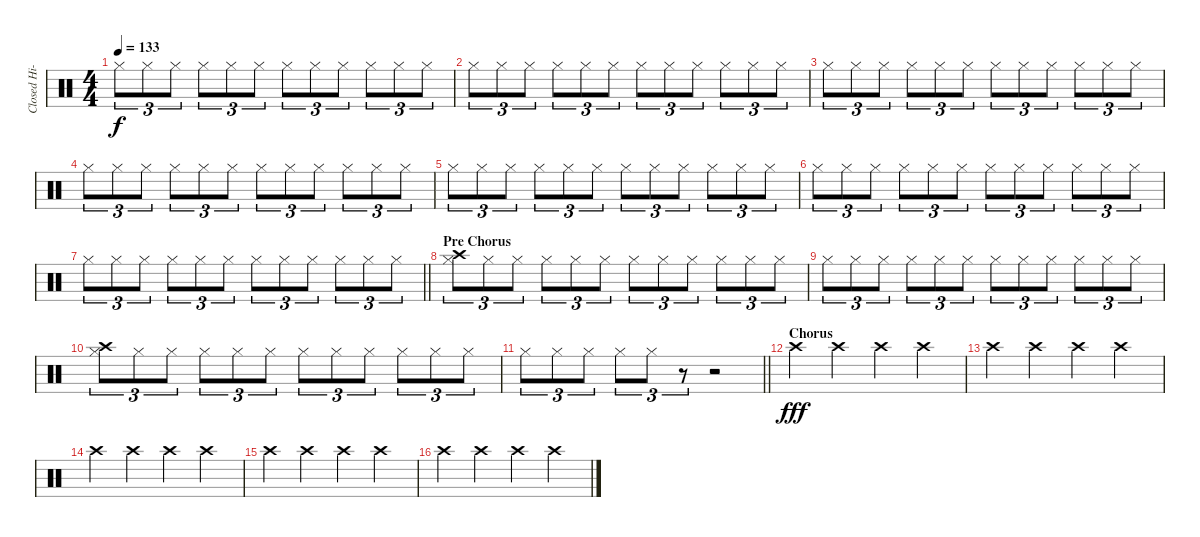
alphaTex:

\track ("Closed Hi-hat/Synth" "Closed Hi-") {instrument percussion}
\staff {score}
\articulation defaults
\ts (4 4)
\tempo 133
\clef neutral
\ks c "Hi-Hat (closed)".8{tu (3 2) dy f} "Hi-Hat (closed)".8{tu (3 2)} "Hi-Hat (closed)".8{tu (3 2)} "Hi-Hat (closed)".8{tu (3 2)} "Hi-Hat (closed)".8{tu (3 2)} "Hi-Hat (closed)".8{tu (3 2)} "Hi-Hat (closed)".8{tu (3 2)} "Hi-Hat (closed)".8{tu (3 2)} "Hi-Hat (closed)".8{tu (3 2)} "Hi-Hat (closed)".8{tu (3 2)} "Hi-Hat (closed)".8{tu (3 2)} "Hi-Hat (closed)".8{tu (3 2)}
|
"Hi-Hat (closed)".8{tu (3 2)} "Hi-Hat (closed)".8{tu (3 2)} "Hi-Hat (closed)".8{tu (3 2)} "Hi-Hat (closed)".8{tu (3 2)} "Hi-Hat (closed)".8{tu (3 2)} "Hi-Hat (closed)".8{tu (3 2)} "Hi-Hat (closed)".8{tu (3 2)} "Hi-Hat (closed)".8{tu (3 2)} "Hi-Hat (closed)".8{tu (3 2)} "Hi-Hat (closed)".8{tu (3 2)} "Hi-Hat (closed)".8{tu (3 2)} "Hi-Hat (closed)".8{tu (3 2)} |
"Hi-Hat (closed)".8{tu (3 2)} "Hi-Hat (closed)".8{tu (3 2)} "Hi-Hat (closed)".8{tu (3 2)} "Hi-Hat (closed)".8{tu (3 2)} "Hi-Hat (closed)".8{tu (3 2)} "Hi-Hat (closed)".8{tu (3 2)} "Hi-Hat (closed)".8{tu (3 2)} "Hi-Hat (closed)".8{tu (3 2)} "Hi-Hat (closed)".8{tu (3 2)} "Hi-Hat (closed)".8{tu (3 2)} "Hi-Hat (closed)".8{tu (3 2)} "Hi-Hat (closed)".8{tu (3 2)} |
"Hi-Hat (closed)".8{tu (3 2)} "Hi-Hat (closed)".8{tu (3 2)} "Hi-Hat (closed)".8{tu (3 2)} "Hi-Hat (closed)".8{tu (3 2)} "Hi-Hat (closed)".8{tu (3 2)} "Hi-Hat (closed)".8{tu (3 2)} "Hi-Hat (closed)".8{tu (3 2)} "Hi-Hat (closed)".8{tu (3 2)} "Hi-Hat (closed)".8{tu (3 2)} "Hi-Hat (closed)".8{tu (3 2)} "Hi-Hat (closed)".8{tu (3 2)} "Hi-Hat (closed)".8{tu (3 2)} |
"Hi-Hat (closed)".8{tu (3 2)} "Hi-Hat (closed)".8{tu (3 2)} "Hi-Hat (closed)".8{tu (3 2)} "Hi-Hat (closed)".8{tu (3 2)} "Hi-Hat (closed)".8{tu (3 2)} "Hi-Hat (closed)".8{tu (3 2)} "Hi-Hat (closed)".8{tu (3 2)} "Hi-Hat (closed)".8{tu (3 2)} "Hi-Hat (closed)".8{tu (3 2)} "Hi-Hat (closed)".8{tu (3 2)} "Hi-Hat (closed)".8{tu (3 2)} "Hi-Hat (closed)".8{tu (3 2)} |
"Hi-Hat (closed)".8{tu (3 2)} "Hi-Hat (closed)".8{tu (3 2)} "Hi-Hat (closed)".8{tu (3 2)} "Hi-Hat (closed)".8{tu (3 2)} "Hi-Hat (closed)".8{tu (3 2)} "Hi-Hat (closed)".8{tu (3 2)} "Hi-Hat (closed)".8{tu (3 2)} "Hi-Hat (closed)".8{tu (3 2)} "Hi-Hat (closed)".8{tu (3 2)} "Hi-Hat (closed)".8{tu (3 2)} "Hi-Hat (closed)".8{tu (3 2)} "Hi-Hat (closed)".8{tu (3 2)} |
\barLineRight lightlight "Hi-Hat (closed)".8{tu (3 2)} "Hi-Hat (closed)".8{tu (3 2)} "Hi-Hat (closed)".8{tu (3 2)} "Hi-Hat (closed)".8{tu (3 2)} "Hi-Hat (closed)".8{tu (3 2)} "Hi-Hat (closed)".8{tu (3 2)} "Hi-Hat (closed)".8{tu (3 2)} "Hi-Hat (closed)".8{tu (3 2)} "Hi-Hat (closed)".8{tu (3 2)} "Hi-Hat (closed)".8{tu (3 2)} "Hi-Hat (closed)".8{tu (3 2)} "Hi-Hat (closed)".8{tu (3 2)}
|
\section ("" "Pre Chorus")
("Crash high (hit)" "Hi-Hat (closed)").8{tu (3 2)} "Hi-Hat (closed)".8{tu (3 2)} "Hi-Hat (closed)".8{tu (3 2)} "Hi-Hat (closed)".8{tu (3 2)} "Hi-Hat (closed)".8{tu (3 2)} "Hi-Hat (closed)".8{tu (3 2)} "Hi-Hat (closed)".8{tu (3 2)} "Hi-Hat (closed)".8{tu (3 2)} "Hi-Hat (closed)".8{tu (3 2)} "Hi-Hat (closed)".8{tu (3 2)} "Hi-Hat (closed)".8{tu (3 2)} "Hi-Hat (closed)".8{tu (3 2)} |
"Hi-Hat (closed)".8{tu (3 2)} "Hi-Hat (closed)".8{tu (3 2)} "Hi-Hat (closed)".8{tu (3 2)} "Hi-Hat (closed)".8{tu (3 2)} "Hi-Hat (closed)".8{tu (3 2)} "Hi-Hat (closed)".8{tu (3 2)} "Hi-Hat (closed)".8{tu (3 2)} "Hi-Hat (closed)".8{tu (3 2)} "Hi-Hat (closed)".8{tu (3 2)} "Hi-Hat (closed)".8{tu (3 2)} "Hi-Hat (closed)".8{tu (3 2)} "Hi-Hat (closed)".8{tu (3 2)} |
("Crash high (hit)" "Hi-Hat (closed)").8{tu (3 2)} "Hi-Hat (closed)".8{tu (3 2)} "Hi-Hat (closed)".8{tu (3 2)} "Hi-Hat (closed)".8{tu (3 2)} "Hi-Hat (closed)".8{tu (3 2)} "Hi-Hat (closed)".8{tu (3 2)} "Hi-Hat (closed)".8{tu (3 2)} "Hi-Hat (closed)".8{tu (3 2)} "Hi-Hat (closed)".8{tu (3 2)} "Hi-Hat (closed)".8{tu (3 2)} "Hi-Hat (closed)".8{tu (3 2)} "Hi-Hat (closed)".8{tu (3 2)} |
\barLineRight lightlight "Hi-Hat (closed)".8{tu (3 2)} "Hi-Hat (closed)".8{tu (3 2)} "Hi-Hat (closed)".8{tu (3 2)} "Hi-Hat (closed)".8{tu (3 2)} "Hi-Hat (closed)".8{tu (3 2)}
r.8{tu (3 2)} r.2 |
\section ("" "Chorus")
"Crash high (hit)".4{dy fff} "Crash high (hit)".4 "Crash high (hit)".4 "Crash high (hit)".4 |
"Crash high (hit)".4 "Crash high (hit)".4 "Crash high (hit)".4 "Crash high (hit)".4 |
"Crash high (hit)".4 "Crash high (hit)".4 "Crash high (hit)".4 "Crash high (hit)".4 |
"Crash high (hit)".4 "Crash high (hit)".4 "Crash high (hit)".4 "Crash high (hit)".4 |
"Crash high (hit)".4 "Crash high (hit)".4 "Crash high (hit)".4 "Crash high (hit)".4
